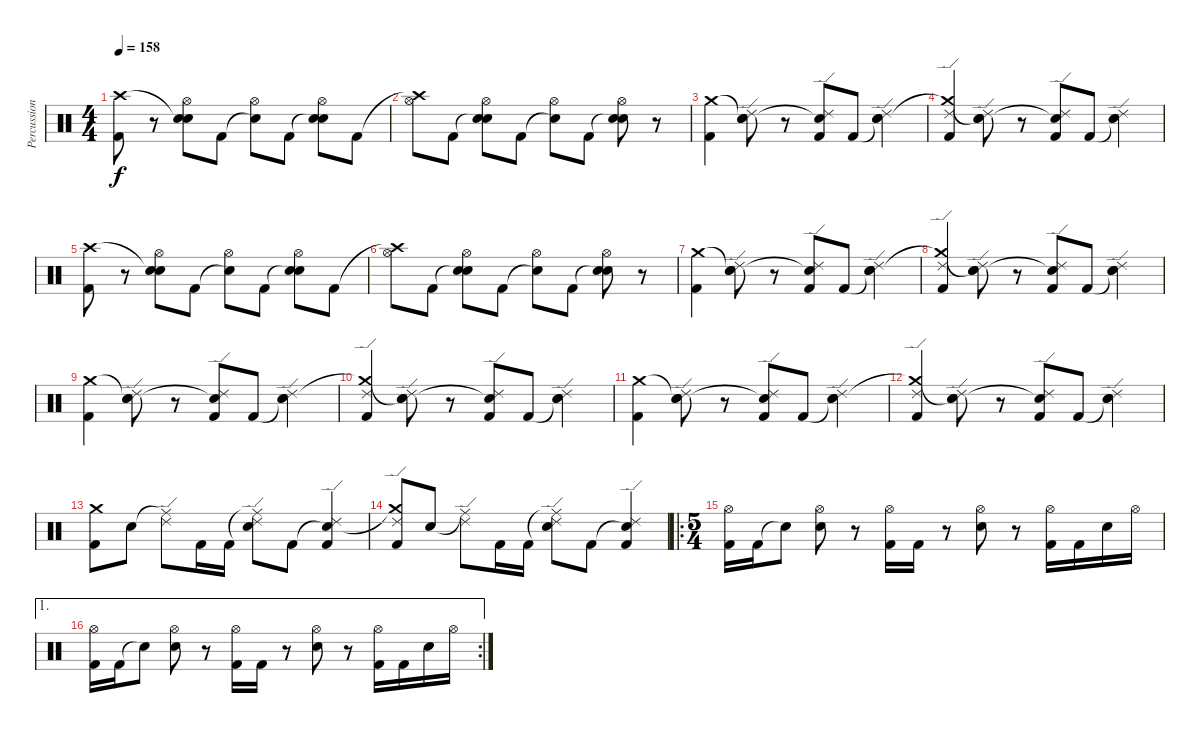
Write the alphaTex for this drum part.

\track ("Percussion" "Percussion") {instrument percussion}
\staff {score}
\articulation defaults
\ts (4 4)
\tempo 158
\clef neutral
\ks c
("Crash high (hit)" "Kick (hit) 2").8{dy f} r.8 ("Snare (hit)"{t} "Hi-Hat (open)" "Snare (hit) 2").8 "Kick (hit) 2".8 ("Snare (hit)"{t} "Hi-Hat (open)").8 "Kick (hit) 2".8 ("Snare (hit)"{t} "Hi-Hat (open)" "Snare (hit) 2").8 "Kick (hit) 2".8 |
("Crash high (hit)"{t} "Hi-Hat (open)").8 "Kick (hit) 2".8 ("Snare (hit)"{t} "Hi-Hat (open)" "Snare (hit) 2").8 "Kick (hit) 2".8 ("Snare (hit)"{t} "Hi-Hat (open)").8 "Kick (hit) 2".8 ("Snare (hit)"{t} "Hi-Hat (open)" "Snare (hit) 2").8 r.8 |
("Crash medium (hit)" "Kick (hit) 2").4 ("Snare (hit)"{t} "Ride (edge) 2" "Snare (hit) 2").8 r.8 ("Snare (hit)"{t} "Ride (edge) 2" "Kick (hit) 2").8 "Kick (hit) 2".8 ("Snare (hit)"{t} "Ride (edge) 2" "Snare (hit) 2").4 |
("Crash medium (hit)"{t} "Ride (edge) 2" "Kick (hit) 2").4 ("Snare (hit)"{t} "Ride (edge) 2" "Snare (hit) 2").8 r.8 ("Snare (hit)"{t} "Ride (edge) 2" "Kick (hit) 2").8 "Kick (hit) 2".8 ("Snare (hit)"{t} "Ride (edge) 2" "Snare (hit) 2").4 |
("Crash high (hit)" "Kick (hit) 2").8 r.8 ("Snare (hit)"{t} "Hi-Hat (open)" "Snare (hit) 2").8 "Kick (hit) 2".8 ("Snare (hit)"{t} "Hi-Hat (open)").8 "Kick (hit) 2".8 ("Snare (hit)"{t} "Hi-Hat (open)" "Snare (hit) 2").8 "Kick (hit) 2".8 |
("Crash high (hit)"{t} "Hi-Hat (open)").8 "Kick (hit) 2".8 ("Snare (hit)"{t} "Hi-Hat (open)" "Snare (hit) 2").8 "Kick (hit) 2".8 ("Snare (hit)"{t} "Hi-Hat (open)").8 "Kick (hit) 2".8 ("Snare (hit)"{t} "Hi-Hat (open)" "Snare (hit) 2").8 r.8 |
("Crash medium (hit)" "Kick (hit) 2").4 ("Snare (hit)"{t} "Ride (edge) 2" "Snare (hit) 2").8 r.8 ("Snare (hit)"{t} "Ride (edge) 2" "Kick (hit) 2").8 "Kick (hit) 2".8 ("Snare (hit)"{t} "Ride (edge) 2" "Snare (hit) 2").4 |
("Crash medium (hit)"{t} "Ride (edge) 2" "Kick (hit) 2").4 ("Snare (hit)"{t} "Ride (edge) 2" "Snare (hit) 2").8 r.8 ("Snare (hit)"{t} "Ride (edge) 2" "Kick (hit) 2").8 "Kick (hit) 2".8 ("Snare (hit)"{t} "Ride (edge) 2" "Snare (hit) 2").4 |
("Crash medium (hit)" "Kick (hit) 2").4 ("Snare (hit)"{t} "Ride (edge) 2" "Snare (hit) 2").8 r.8 ("Snare (hit)"{t} "Ride (edge) 2" "Kick (hit) 2").8 "Kick (hit) 2".8 ("Snare (hit)"{t} "Ride (edge) 2" "Snare (hit) 2").4 |
("Crash medium (hit)"{t} "Ride (edge) 2" "Kick (hit) 2").4 ("Snare (hit)"{t} "Ride (edge) 2" "Snare (hit) 2").8 r.8 ("Snare (hit)"{t} "Ride (edge) 2" "Kick (hit) 2").8 "Kick (hit) 2".8 ("Snare (hit)"{t} "Ride (edge) 2" "Snare (hit) 2").4 |
("Crash medium (hit)" "Kick (hit) 2").4 ("Snare (hit)"{t} "Ride (edge) 2" "Snare (hit) 2").8 r.8 ("Snare (hit)"{t} "Ride (edge) 2" "Kick (hit) 2").8 "Kick (hit) 2".8 ("Snare (hit)"{t} "Ride (edge) 2" "Snare (hit) 2").4 |
("Crash medium (hit)"{t} "Ride (edge) 2" "Kick (hit) 2").4 ("Snare (hit)"{t} "Ride (edge) 2" "Snare (hit) 2").8 r.8 ("Snare (hit)"{t} "Ride (edge) 2" "Kick (hit) 2").8 "Kick (hit) 2".8 ("Snare (hit)"{t} "Ride (edge) 2" "Snare (hit) 2").4 |
("Crash medium (hit)" "Kick (hit) 2").8 "Snare (hit) 2".8 ("Ride (middle)"{t} "Ride (edge) 2").8 "Kick (hit) 2".16 "Kick (hit) 2".16 ("Ride (middle)"{t} "Ride (edge) 2" "Snare (hit) 2").8 "Kick (hit) 2".8 ("Snare (hit)"{t} "Ride (edge) 2" "Kick (hit) 2").4 |
("Crash medium (hit)"{t} "Ride (edge) 2" "Kick (hit) 2").8 "Snare (hit) 2".8 ("Ride (middle)"{t} "Ride (edge) 2").8 "Kick (hit) 2".16 "Kick (hit) 2".16 ("Ride (middle)"{t} "Ride (edge) 2" "Snare (hit) 2").8 "Kick (hit) 2".8 ("Snare (hit)"{t} "Ride (edge) 2" "Kick (hit) 2").4 |
\ro
\ts (5 4)
("Hi-Hat (open)" "Kick (hit) 2").16 "Kick (hit) 2".16 "Snare (hit)"{t}.8 ("Hi-Hat (open)" "Snare (hit) 2").8 r.8 ("Hi-Hat (open)" "Kick (hit) 2").16 "Kick (hit) 2".16 r.8 ("Hi-Hat (open)" "Snare (hit) 2").8 r.8 ("Hi-Hat (open)" "Kick (hit) 2").16 "Kick (hit) 2".16 "Snare (hit) 2".16 "Hi-Hat (open)".16 |
\ae 1
\rc 2
("Hi-Hat (open)" "Kick (hit) 2").16 "Kick (hit) 2".16 "Snare (hit)"{t}.8 ("Hi-Hat (open)" "Snare (hit) 2").8 r.8 ("Hi-Hat (open)" "Kick (hit) 2").16 "Kick (hit) 2".16 r.8 ("Hi-Hat (open)" "Snare (hit) 2").8 r.8 ("Hi-Hat (open)" "Kick (hit) 2").16 "Kick (hit) 2".16 "Snare (hit) 2".16 "Hi-Hat (open)".16
